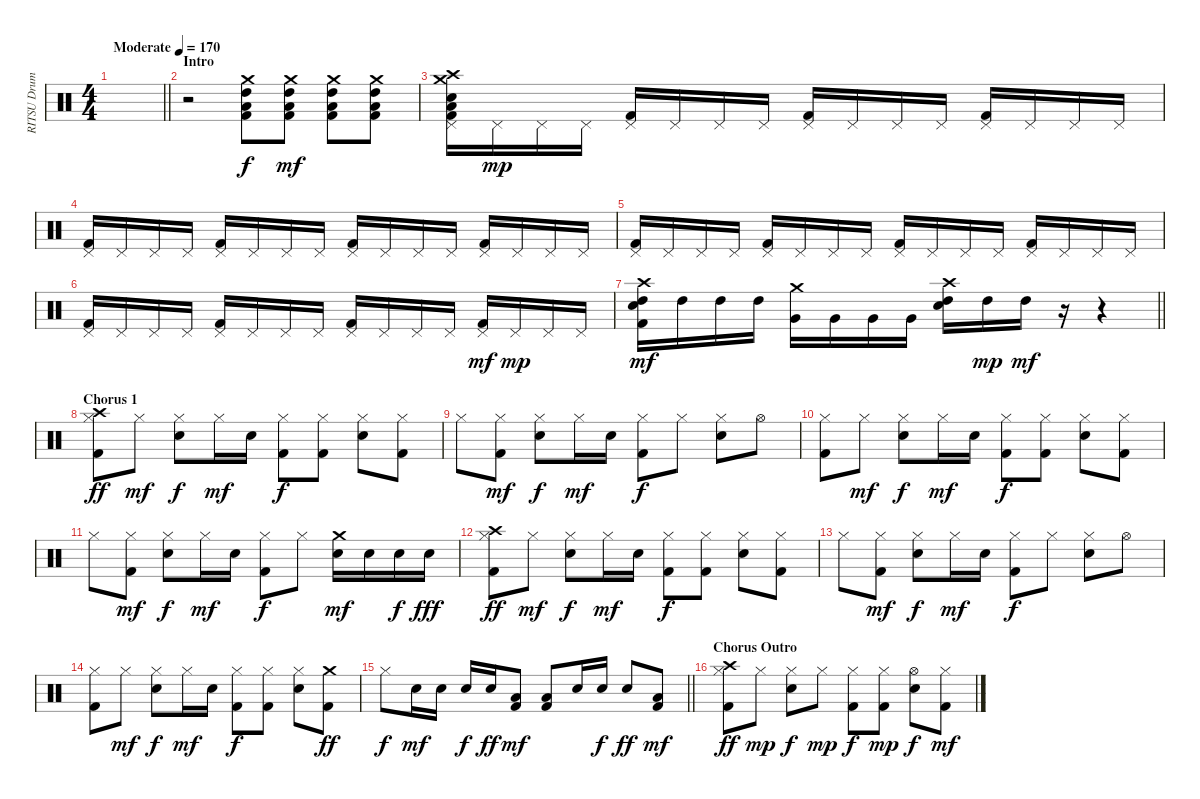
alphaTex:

\track ("RITSU Drums" "RITSU Drum") {instrument percussion}
\staff {score}
\articulation defaults
\ts (4 4)
\tempo (170 "Moderate")
\clef neutral
\barLineRight lightlight
\ks c
|
\section ("" "Intro")
r.2 ("Crash medium (hit)" "High Tom (hit)" "Low Floor Tom (hit)" "Kick (hit) 2").8 ("Crash medium (hit)" "High Tom (hit)" "Low Floor Tom (hit)" "Kick (hit) 2").8{dy mf} ("Crash medium (hit)" "High Tom (hit)" "Low Floor Tom (hit)" "Kick (hit) 2").8 ("Crash medium (hit)" "High Tom (hit)" "Low Floor Tom (hit)" "Kick (hit) 2").8 |
("Crash medium (hit)" "Crash high (hit)" "Pedal Hi-Hat (hit)" "Electric Snare (hit)" "Low Floor Tom (hit)" "Kick (hit) 2").16 "Pedal Hi-Hat (hit)".16{dy mp} "Pedal Hi-Hat (hit)".16 "Pedal Hi-Hat (hit)".16 ("Pedal Hi-Hat (hit)" "Kick (hit) 2").16 "Pedal Hi-Hat (hit)".16 "Pedal Hi-Hat (hit)".16 "Pedal Hi-Hat (hit)".16 ("Pedal Hi-Hat (hit)" "Kick (hit) 2").16 "Pedal Hi-Hat (hit)".16 "Pedal Hi-Hat (hit)".16 "Pedal Hi-Hat (hit)".16 ("Pedal Hi-Hat (hit)" "Kick (hit) 2").16 "Pedal Hi-Hat (hit)".16 "Pedal Hi-Hat (hit)".16 "Pedal Hi-Hat (hit)".16 |
("Pedal Hi-Hat (hit)" "Kick (hit) 2").16 "Pedal Hi-Hat (hit)".16 "Pedal Hi-Hat (hit)".16 "Pedal Hi-Hat (hit)".16 ("Pedal Hi-Hat (hit)" "Kick (hit) 2").16 "Pedal Hi-Hat (hit)".16 "Pedal Hi-Hat (hit)".16 "Pedal Hi-Hat (hit)".16 ("Pedal Hi-Hat (hit)" "Kick (hit) 2").16 "Pedal Hi-Hat (hit)".16 "Pedal Hi-Hat (hit)".16 "Pedal Hi-Hat (hit)".16 ("Pedal Hi-Hat (hit)" "Kick (hit) 2").16 "Pedal Hi-Hat (hit)".16 "Pedal Hi-Hat (hit)".16 "Pedal Hi-Hat (hit)".16 |
("Pedal Hi-Hat (hit)" "Kick (hit) 2").16 "Pedal Hi-Hat (hit)".16 "Pedal Hi-Hat (hit)".16 "Pedal Hi-Hat (hit)".16 ("Pedal Hi-Hat (hit)" "Kick (hit) 2").16 "Pedal Hi-Hat (hit)".16 "Pedal Hi-Hat (hit)".16 "Pedal Hi-Hat (hit)".16 ("Pedal Hi-Hat (hit)" "Kick (hit) 2").16 "Pedal Hi-Hat (hit)".16 "Pedal Hi-Hat (hit)".16 "Pedal Hi-Hat (hit)".16 ("Pedal Hi-Hat (hit)" "Kick (hit) 2").16 "Pedal Hi-Hat (hit)".16 "Pedal Hi-Hat (hit)".16 "Pedal Hi-Hat (hit)".16 |
("Pedal Hi-Hat (hit)" "Kick (hit) 2").16 "Pedal Hi-Hat (hit)".16 "Pedal Hi-Hat (hit)".16 "Pedal Hi-Hat (hit)".16 ("Pedal Hi-Hat (hit)" "Kick (hit) 2").16 "Pedal Hi-Hat (hit)".16 "Pedal Hi-Hat (hit)".16 "Pedal Hi-Hat (hit)".16 ("Pedal Hi-Hat (hit)" "Kick (hit) 2").16 "Pedal Hi-Hat (hit)".16 "Pedal Hi-Hat (hit)".16 "Pedal Hi-Hat (hit)".16 ("Pedal Hi-Hat (hit)" "Kick (hit) 2").16{dy mf} "Pedal Hi-Hat (hit)".16{dy mp} "Pedal Hi-Hat (hit)".16 "Pedal Hi-Hat (hit)".16 |
\barLineRight lightlight
("Crash high (hit)" "High Tom (hit)" "Electric Snare (hit)" "Kick (hit) 2").16{dy mf} "High Tom (hit)".16 "High Tom (hit)".16 "High Tom (hit)".16 ("Crash medium (hit)" "Very Low Tom (hit)").16 "Very Low Tom (hit)".16 "Very Low Tom (hit)".16 "Very Low Tom (hit)".16 ("Crash high (hit)" "High Tom (hit)" "Electric Snare (hit)").16 "High Tom (hit)".16{dy mp} "High Tom (hit)".16{dy mf} r.16 r.4 |
\section ("" "Chorus 1")
("Crash high (hit)" "Hi-Hat (closed)" "Kick (hit) 2").8{dy ff} "Hi-Hat (closed)".8{dy mf} ("Hi-Hat (closed)" "Electric Snare (hit)").8{dy f} "Hi-Hat (closed)".16{dy mf} "Electric Snare (hit)".16 ("Hi-Hat (closed)" "Kick (hit) 2").8{dy f} ("Hi-Hat (closed)" "Kick (hit) 2").8 ("Hi-Hat (closed)" "Electric Snare (hit)").8 ("Hi-Hat (closed)" "Kick (hit) 2").8 |
"Hi-Hat (closed)".8 ("Hi-Hat (closed)" "Kick (hit) 2").8{dy mf} ("Hi-Hat (closed)" "Electric Snare (hit)").8{dy f} "Hi-Hat (closed)".16{dy mf} "Electric Snare (hit)".16 ("Hi-Hat (closed)" "Kick (hit) 2").8{dy f} "Hi-Hat (closed)".8 ("Hi-Hat (closed)" "Electric Snare (hit)").8 "Hi-Hat (open)".8 |
("Hi-Hat (closed)" "Kick (hit) 2").8 "Hi-Hat (closed)".8{dy mf} ("Hi-Hat (closed)" "Electric Snare (hit)").8{dy f} "Hi-Hat (closed)".16{dy mf} "Electric Snare (hit)".16 ("Hi-Hat (closed)" "Kick (hit) 2").8{dy f} ("Hi-Hat (closed)" "Kick (hit) 2").8 ("Hi-Hat (closed)" "Electric Snare (hit)").8 ("Hi-Hat (closed)" "Kick (hit) 2").8 |
"Hi-Hat (closed)".8 ("Hi-Hat (closed)" "Kick (hit) 2").8{dy mf} ("Hi-Hat (closed)" "Electric Snare (hit)").8{dy f} "Hi-Hat (closed)".16{dy mf} "Electric Snare (hit)".16 ("Hi-Hat (closed)" "Kick (hit) 2").8{dy f} "Hi-Hat (closed)".8 ("Crash medium (hit)" "Electric Snare (hit)").16{dy mf} "Electric Snare (hit)".16 "Electric Snare (hit)".16{dy f} "Electric Snare (hit)".16{dy fff} |
("Crash high (hit)" "Hi-Hat (closed)" "Kick (hit) 2").8{dy ff} "Hi-Hat (closed)".8{dy mf} ("Hi-Hat (closed)" "Electric Snare (hit)").8{dy f} "Hi-Hat (closed)".16{dy mf} "Electric Snare (hit)".16 ("Hi-Hat (closed)" "Kick (hit) 2").8{dy f} ("Hi-Hat (closed)" "Kick (hit) 2").8 ("Hi-Hat (closed)" "Electric Snare (hit)").8 ("Hi-Hat (closed)" "Kick (hit) 2").8 |
"Hi-Hat (closed)".8 ("Hi-Hat (closed)" "Kick (hit) 2").8{dy mf} ("Hi-Hat (closed)" "Electric Snare (hit)").8{dy f} "Hi-Hat (closed)".16{dy mf} "Electric Snare (hit)".16 ("Hi-Hat (closed)" "Kick (hit) 2").8{dy f} "Hi-Hat (closed)".8 ("Hi-Hat (closed)" "Electric Snare (hit)").8 "Hi-Hat (open)".8 |
("Hi-Hat (closed)" "Kick (hit) 2").8 "Hi-Hat (closed)".8{dy mf} ("Hi-Hat (closed)" "Electric Snare (hit)").8{dy f} "Hi-Hat (closed)".16{dy mf} "Electric Snare (hit)".16 ("Hi-Hat (closed)" "Kick (hit) 2").8{dy f} ("Hi-Hat (closed)" "Kick (hit) 2").8 ("Hi-Hat (closed)" "Electric Snare (hit)").8 ("Crash medium (hit)" "Kick (hit) 2").8{dy ff} |
\barLineRight lightlight "Hi-Hat (closed)".8{dy f} "Electric Snare (hit)".16{dy mf} "Electric Snare (hit)".16 "Electric Snare (hit)".16{dy f} "Electric Snare (hit)".16{dy ff}
("Low Tom (hit)" "Kick (hit) 2").8{dy mf} ("Low Floor Tom (hit)" "Kick (hit) 2").8 "Electric Snare (hit)".16 "Electric Snare (hit)".16{dy f} "Electric Snare (hit)".8{dy ff} ("Low Floor Tom (hit)" "Kick (hit) 2").8{dy mf} |
\section ("" "Chorus Outro")
("Crash high (hit)" "Hi-Hat (closed)" "Kick (hit) 2").8{dy ff} "Hi-Hat (closed)".8{dy mp} ("Hi-Hat (closed)" "Electric Snare (hit)").8{dy f} "Hi-Hat (closed)".8{dy mp} ("Hi-Hat (closed)" "Kick (hit) 2").8{dy f} ("Hi-Hat (closed)" "Kick (hit) 2").8{dy mp} ("Hi-Hat (open)" "Electric Snare (hit)").8{dy f} ("Hi-Hat (closed)" "Kick (hit) 2").8{dy mf}
